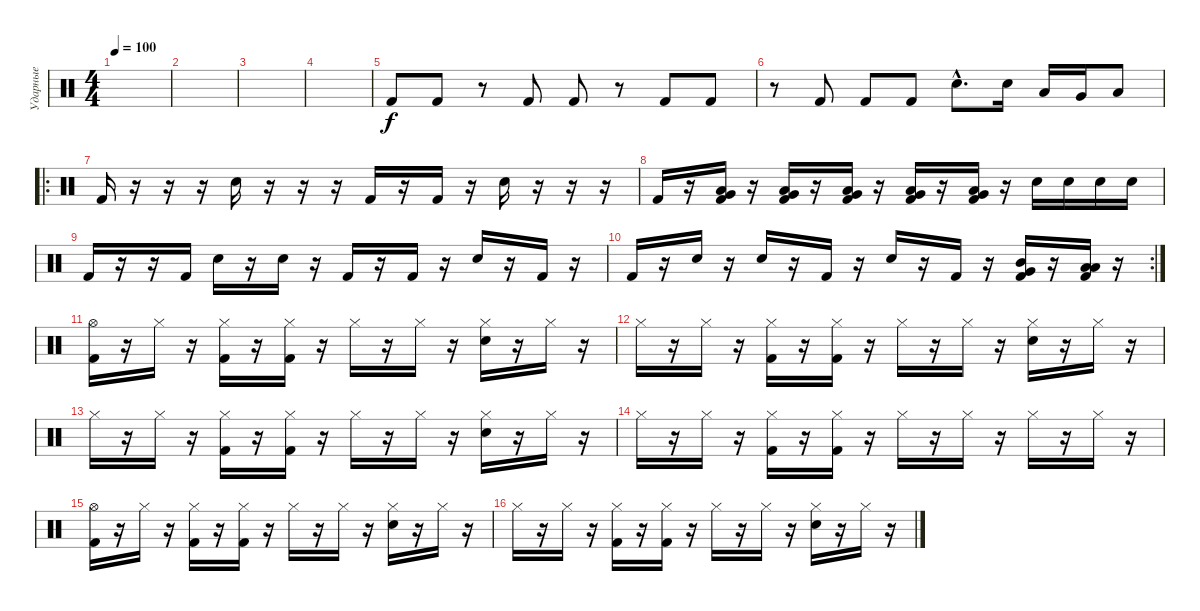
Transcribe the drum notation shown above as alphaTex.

\track ("Ударные" "Ударные") {instrument percussion}
\staff {score}
\articulation defaults
\ts (4 4)
\tempo 100
\clef neutral
\ks c
|
|
|
|
"Kick (hit) 2".8 "Kick (hit) 2".8 r.8 "Kick (hit) 2".8 "Kick (hit) 2".8 r.8 "Kick (hit) 2".8 "Kick (hit) 2".8 |
r.8 "Kick (hit) 2".8 "Kick (hit) 2".8 "Kick (hit) 2".8 "Snare (hit) 2"{hac}.8{d} "Snare (hit) 2".16 "Low Tom (hit)".16 "Very Low Tom (hit)".16 "Low Floor Tom (hit)".8 |
\ro "Kick (hit) 2".16
r.16 r.16 r.16 "Snare (hit) 2".16 r.16 r.16 r.16 "Kick (hit) 2".16 r.16 "Kick (hit) 2".16 r.16 "Snare (hit) 2".16 r.16 r.16 r.16 |
"Kick (hit) 2".16 r.16 ("Very Low Tom (hit)" "Low Floor Tom (hit)" "Kick (hit) 2").16 r.16 ("Very Low Tom (hit)" "Low Floor Tom (hit)" "Kick (hit) 2").16 r.16 ("Very Low Tom (hit)" "Low Floor Tom (hit)" "Kick (hit) 2").16 r.16 ("Very Low Tom (hit)" "Low Floor Tom (hit)" "Kick (hit) 2").16 r.16 ("Very Low Tom (hit)" "Low Floor Tom (hit)" "Kick (hit) 2").16 r.16 "Snare (hit) 2".16 "Snare (hit) 2".16 "Snare (hit) 2".16 "Snare (hit) 2".16 |
"Kick (hit) 2".16 r.16 r.16 "Kick (hit) 2".16 "Snare (hit) 2".16 r.16 "Snare (hit) 2".16 r.16 "Kick (hit) 2".16 r.16 "Kick (hit) 2".16 r.16 "Snare (hit) 2".16 r.16 "Kick (hit) 2".16 r.16 |
\rc 2 "Kick (hit) 2".16
r.16 "Snare (hit) 2".16 r.16 "Snare (hit) 2".16 r.16 "Kick (hit) 2".16 r.16 "Snare (hit) 2".16 r.16 "Kick (hit) 2".16 r.16 ("Mid Tom (hit)" "Very Low Tom (hit)" "Kick (hit) 2").16 r.16 ("Low Tom (hit)" "Low Floor Tom (hit)" "Kick (hit) 2").16 r.16 |
("Hi-Hat (open)" "Kick (hit) 2").16 r.16 "Hi-Hat (closed)".16 r.16 ("Hi-Hat (closed)" "Kick (hit) 2").16 r.16 ("Hi-Hat (closed)" "Kick (hit) 2").16 r.16 "Hi-Hat (closed)".16 r.16 "Hi-Hat (closed)".16 r.16 ("Hi-Hat (closed)" "Snare (hit) 2").16 r.16 "Hi-Hat (closed)".16 r.16 |
"Hi-Hat (closed)".16 r.16 "Hi-Hat (closed)".16 r.16 ("Hi-Hat (closed)" "Kick (hit) 2").16 r.16 ("Hi-Hat (closed)" "Kick (hit) 2").16 r.16 "Hi-Hat (closed)".16 r.16 "Hi-Hat (closed)".16 r.16 ("Hi-Hat (closed)" "Snare (hit) 2").16 r.16 "Hi-Hat (closed)".16 r.16 |
"Hi-Hat (closed)".16 r.16 "Hi-Hat (closed)".16 r.16 ("Hi-Hat (closed)" "Kick (hit) 2").16 r.16 ("Hi-Hat (closed)" "Kick (hit) 2").16 r.16 "Hi-Hat (closed)".16 r.16 "Hi-Hat (closed)".16 r.16 ("Hi-Hat (closed)" "Snare (hit) 2").16 r.16 "Hi-Hat (closed)".16 r.16 |
"Hi-Hat (closed)".16 r.16 "Hi-Hat (closed)".16 r.16 ("Hi-Hat (closed)" "Kick (hit) 2").16 r.16 ("Hi-Hat (closed)" "Kick (hit) 2").16 r.16 "Hi-Hat (closed)".16 r.16 "Hi-Hat (closed)".16 r.16 "Hi-Hat (closed)".16 r.16 "Hi-Hat (closed)".16 r.16 |
("Hi-Hat (open)" "Kick (hit) 2").16 r.16 "Hi-Hat (closed)".16 r.16 ("Hi-Hat (closed)" "Kick (hit) 2").16 r.16 ("Hi-Hat (closed)" "Kick (hit) 2").16 r.16 "Hi-Hat (closed)".16 r.16 "Hi-Hat (closed)".16 r.16 ("Hi-Hat (closed)" "Snare (hit) 2").16 r.16 "Hi-Hat (closed)".16 r.16 |
"Hi-Hat (closed)".16 r.16 "Hi-Hat (closed)".16 r.16 ("Hi-Hat (closed)" "Kick (hit) 2").16 r.16 ("Hi-Hat (closed)" "Kick (hit) 2").16 r.16 "Hi-Hat (closed)".16 r.16 "Hi-Hat (closed)".16 r.16 ("Hi-Hat (closed)" "Snare (hit) 2").16 r.16 "Hi-Hat (closed)".16 r.16
